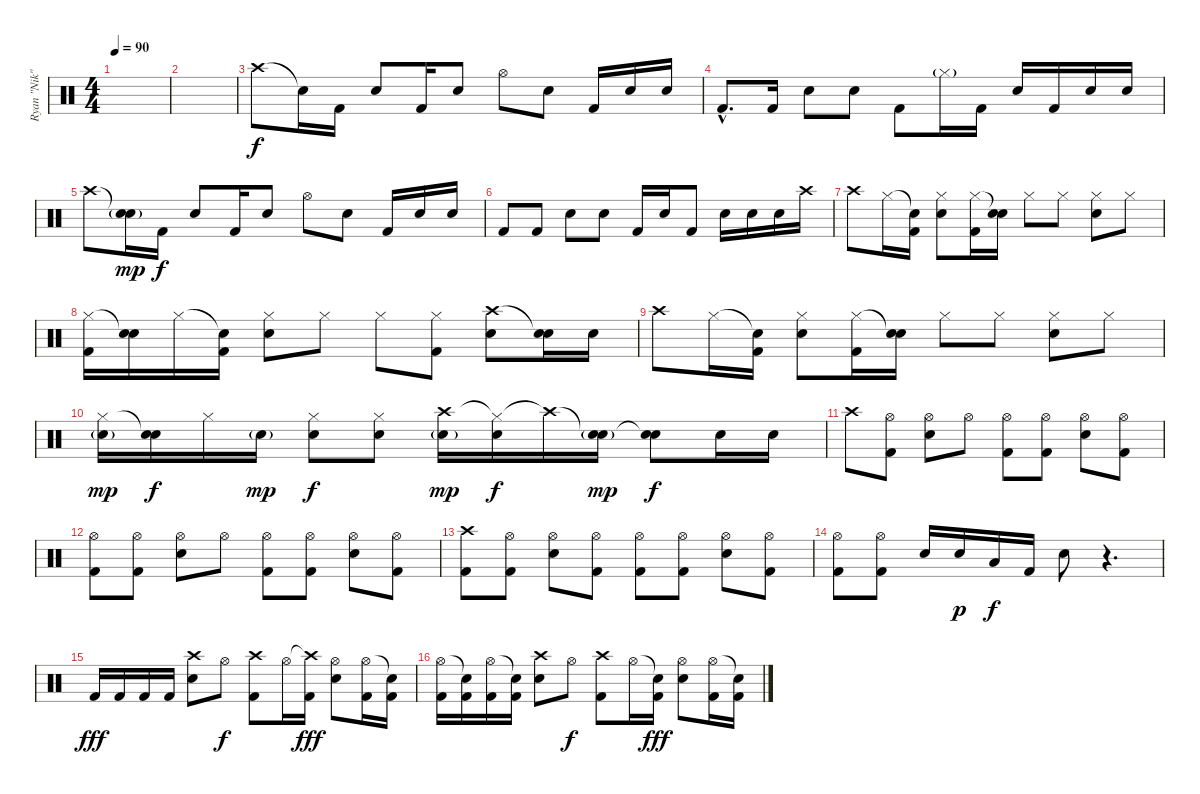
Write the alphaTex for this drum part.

\track ("Ryan \"Nik\" Vikedal (drums)" "Ryan \"Nik\"") {instrument percussion}
\staff {score}
\articulation defaults
\ts (4 4)
\tempo 90
\clef neutral
\ks c
|
|
"Crash high (hit)".8 "Snare (hit)"{t}.16 "Kick (hit) 2".16 "Electric Snare (hit)".8 "Kick (hit) 2".16 "Electric Snare (hit)".8 "Hi-Hat (open)".8 "Electric Snare (hit)".8 "Kick (hit) 2".16 "Electric Snare (hit)".16 "Electric Snare (hit)".16 |
"Kick (hit) 2"{hac}.8{d} "Kick (hit) 2".16 "Electric Snare (hit)".8 "Electric Snare (hit)".8 "Kick (hit) 2".8 "Hi-Hat (closed)"{g}.16 "Kick (hit) 2".16 "Electric Snare (hit)".16 "Kick (hit) 2".16 "Electric Snare (hit)".16 "Electric Snare (hit)".16 |
"Crash high (hit)".8 ("Snare (hit)"{t} "Electric Snare (hit)"{g}).16{dy mp} "Kick (hit) 2".16{dy f} "Electric Snare (hit)".8 "Kick (hit) 2".16 "Electric Snare (hit)".8 "Hi-Hat (open)".8 "Electric Snare (hit)".8 "Kick (hit) 2".16 "Electric Snare (hit)".16 "Electric Snare (hit)".16 |
"Kick (hit) 2".8 "Kick (hit) 2".8 "Electric Snare (hit)".8 "Electric Snare (hit)".8 "Kick (hit) 2".16 "Electric Snare (hit)".16 "Kick (hit) 2".8 "Electric Snare (hit)".16 "Electric Snare (hit)".16 "Electric Snare (hit)".16 "Crash high (hit)".16 |
"Crash high (hit)".8 "Hi-Hat (closed)".16 ("Snare (hit)"{t} "Kick (hit) 2").16 ("Hi-Hat (closed)" "Electric Snare (hit)").8 ("Hi-Hat (closed)" "Kick (hit) 2").16 ("Snare (hit)"{t} "Electric Snare (hit)").16 "Hi-Hat (closed)".8 "Hi-Hat (closed)".8 ("Hi-Hat (closed)" "Electric Snare (hit)").8 "Hi-Hat (closed)".8 |
("Hi-Hat (closed)" "Kick (hit) 2").16 ("Snare (hit)"{t} "Electric Snare (hit)").16 "Hi-Hat (closed)".16 ("Snare (hit)"{t} "Kick (hit) 2").16 ("Hi-Hat (closed)" "Electric Snare (hit)").8 "Hi-Hat (closed)".8 "Hi-Hat (closed)".8 ("Hi-Hat (closed)" "Kick (hit) 2").8 ("Crash high (hit)" "Electric Snare (hit)").8 ("Snare (hit)"{t} "Electric Snare (hit)").16 "Electric Snare (hit)".16 |
"Crash high (hit)".8 "Hi-Hat (closed)".16 ("Snare (hit)"{t} "Kick (hit) 2").16 ("Hi-Hat (closed)" "Electric Snare (hit)").8 ("Hi-Hat (closed)" "Kick (hit) 2").16 ("Snare (hit)"{t} "Electric Snare (hit)").16 "Hi-Hat (closed)".8 "Hi-Hat (closed)".8 ("Hi-Hat (closed)" "Electric Snare (hit)").8 "Hi-Hat (closed)".8 |
("Hi-Hat (closed)" "Electric Snare (hit)"{g}).16{dy mp} ("Snare (hit)"{t} "Electric Snare (hit)").16{dy f} "Hi-Hat (closed)".16 "Electric Snare (hit)"{g}.16{dy mp} ("Hi-Hat (closed)" "Electric Snare (hit)").8{dy f} ("Hi-Hat (closed)" "Electric Snare (hit)").8 ("Crash high (hit)" "Electric Snare (hit)"{g}).16{dy mp} ("Hi-Hat (closed)"{t} "Electric Snare (hit)").16{dy f} "Crash high (hit)"{t}.16 ("Snare (hit)"{t} "Electric Snare (hit)"{g}).16{dy mp} ("Snare (hit)"{t} "Electric Snare (hit)").8{dy f} "Electric Snare (hit)".16 "Electric Snare (hit)".16 |
"Crash high (hit)".8 ("Hi-Hat (open)" "Kick (hit) 2").8 ("Hi-Hat (open)" "Electric Snare (hit)").8 "Hi-Hat (open)".8 ("Hi-Hat (open)" "Kick (hit) 2").8 ("Hi-Hat (open)" "Kick (hit) 2").8 ("Hi-Hat (open)" "Electric Snare (hit)").8 ("Hi-Hat (open)" "Kick (hit) 2").8 |
("Hi-Hat (open)" "Kick (hit) 2").8 ("Hi-Hat (open)" "Kick (hit) 2").8 ("Hi-Hat (open)" "Electric Snare (hit)").8 "Hi-Hat (open)".8 ("Hi-Hat (open)" "Kick (hit) 2").8 ("Hi-Hat (open)" "Kick (hit) 2").8 ("Hi-Hat (open)" "Electric Snare (hit)").8 ("Hi-Hat (open)" "Kick (hit) 2").8 |
("Crash high (hit)" "Kick (hit) 2").8 ("Hi-Hat (open)" "Kick (hit) 2").8 ("Hi-Hat (open)" "Electric Snare (hit)").8 ("Hi-Hat (open)" "Kick (hit) 2").8 ("Hi-Hat (open)" "Kick (hit) 2").8 ("Hi-Hat (open)" "Kick (hit) 2").8 ("Hi-Hat (open)" "Electric Snare (hit)").8 ("Hi-Hat (open)" "Kick (hit) 2").8 |
("Hi-Hat (open)" "Kick (hit) 2").8 ("Hi-Hat (open)" "Kick (hit) 2").8 "Electric Snare (hit)".16 "Electric Snare (hit)".16{dy p} "Low Tom (hit)".16{dy f} "Kick (hit) 2".16 "Electric Snare (hit)".8 r.4{d} |
"Kick (hit) 2".16{dy fff} "Kick (hit) 2".16 "Kick (hit) 2".16 "Kick (hit) 2".16 ("Crash high (hit)" "Electric Snare (hit)").8 "Hi-Hat (open)".8{dy f} ("Crash high (hit)" "Kick (hit) 2").8 "Hi-Hat (open)".16 ("Crash high (hit)"{t} "Kick (hit) 2").16{dy fff} ("Hi-Hat (open)" "Electric Snare (hit)").8 ("Hi-Hat (open)" "Kick (hit) 2").16 ("Snare (hit)"{t} "Kick (hit) 2").16 |
("Hi-Hat (open)" "Kick (hit) 2").16 ("Snare (hit)"{t} "Kick (hit) 2").16 ("Hi-Hat (open)" "Kick (hit) 2").16 ("Snare (hit)"{t} "Kick (hit) 2").16 ("Crash high (hit)" "Electric Snare (hit)").8 "Hi-Hat (open)".8{dy f} ("Crash high (hit)" "Kick (hit) 2").8 "Hi-Hat (open)".16 ("Snare (hit)"{t} "Kick (hit) 2").16{dy fff} ("Hi-Hat (open)" "Electric Snare (hit)").8 ("Hi-Hat (open)" "Kick (hit) 2").16 ("Snare (hit)"{t} "Kick (hit) 2").16
